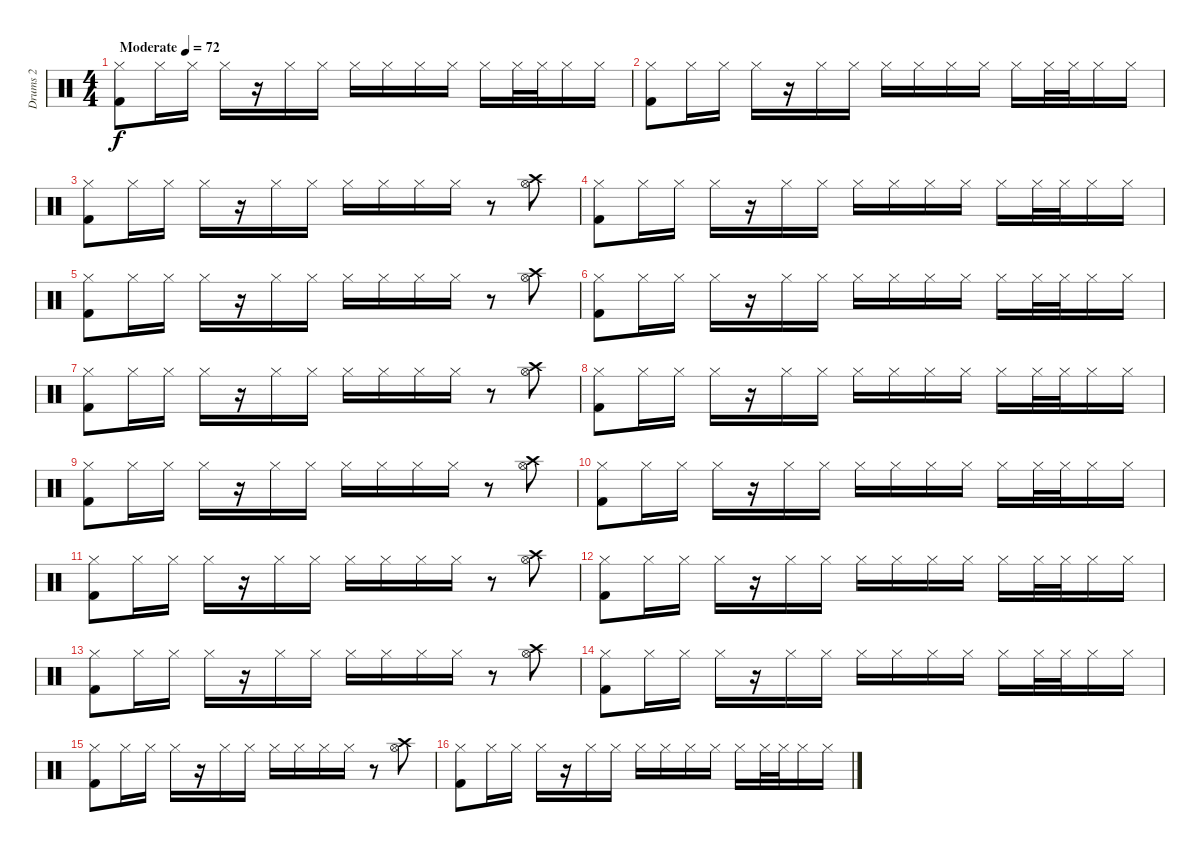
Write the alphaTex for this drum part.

\track ("Drums 2" "Drums 2") {instrument percussion}
\staff {score}
\articulation defaults
\ts (4 4)
\tempo (72 "Moderate")
\clef neutral
\ks c
("Hi-Hat (closed)" "Kick (hit) 2").8{dy f volume 10 balance 12} "Hi-Hat (closed)".16 "Hi-Hat (closed)".16 "Hi-Hat (closed)".16 r.16 "Hi-Hat (closed)".16 "Hi-Hat (closed)".16 "Hi-Hat (closed)".16 "Hi-Hat (closed)".16 "Hi-Hat (closed)".16 "Hi-Hat (closed)".16 "Hi-Hat (closed)".16 "Hi-Hat (closed)".32 "Hi-Hat (closed)".32 "Hi-Hat (closed)".16 "Hi-Hat (closed)".16 |
("Hi-Hat (closed)" "Kick (hit) 2").8 "Hi-Hat (closed)".16 "Hi-Hat (closed)".16 "Hi-Hat (closed)".16 r.16 "Hi-Hat (closed)".16 "Hi-Hat (closed)".16 "Hi-Hat (closed)".16 "Hi-Hat (closed)".16 "Hi-Hat (closed)".16 "Hi-Hat (closed)".16 "Hi-Hat (closed)".16 "Hi-Hat (closed)".32 "Hi-Hat (closed)".32 "Hi-Hat (closed)".16 "Hi-Hat (closed)".16 |
("Hi-Hat (closed)" "Kick (hit) 2").8 "Hi-Hat (closed)".16 "Hi-Hat (closed)".16 "Hi-Hat (closed)".16 r.16 "Hi-Hat (closed)".16 "Hi-Hat (closed)".16 "Hi-Hat (closed)".16 "Hi-Hat (closed)".16 "Hi-Hat (closed)".16 "Hi-Hat (closed)".16 r.8 ("Hi-Hat (open)" "Crash high (hit)").8 |
("Hi-Hat (closed)" "Kick (hit) 2").8 "Hi-Hat (closed)".16 "Hi-Hat (closed)".16 "Hi-Hat (closed)".16 r.16 "Hi-Hat (closed)".16 "Hi-Hat (closed)".16 "Hi-Hat (closed)".16 "Hi-Hat (closed)".16 "Hi-Hat (closed)".16 "Hi-Hat (closed)".16 "Hi-Hat (closed)".16 "Hi-Hat (closed)".32 "Hi-Hat (closed)".32 "Hi-Hat (closed)".16 "Hi-Hat (closed)".16 |
("Hi-Hat (closed)" "Kick (hit) 2").8 "Hi-Hat (closed)".16 "Hi-Hat (closed)".16 "Hi-Hat (closed)".16 r.16 "Hi-Hat (closed)".16 "Hi-Hat (closed)".16 "Hi-Hat (closed)".16 "Hi-Hat (closed)".16 "Hi-Hat (closed)".16 "Hi-Hat (closed)".16 r.8 ("Hi-Hat (open)" "Crash high (hit)").8 |
("Hi-Hat (closed)" "Kick (hit) 2").8 "Hi-Hat (closed)".16 "Hi-Hat (closed)".16 "Hi-Hat (closed)".16 r.16 "Hi-Hat (closed)".16 "Hi-Hat (closed)".16 "Hi-Hat (closed)".16 "Hi-Hat (closed)".16 "Hi-Hat (closed)".16 "Hi-Hat (closed)".16 "Hi-Hat (closed)".16 "Hi-Hat (closed)".32 "Hi-Hat (closed)".32 "Hi-Hat (closed)".16 "Hi-Hat (closed)".16 |
("Hi-Hat (closed)" "Kick (hit) 2").8 "Hi-Hat (closed)".16 "Hi-Hat (closed)".16 "Hi-Hat (closed)".16 r.16 "Hi-Hat (closed)".16 "Hi-Hat (closed)".16 "Hi-Hat (closed)".16 "Hi-Hat (closed)".16 "Hi-Hat (closed)".16 "Hi-Hat (closed)".16 r.8 ("Hi-Hat (open)" "Crash high (hit)").8 |
("Hi-Hat (closed)" "Kick (hit) 2").8 "Hi-Hat (closed)".16 "Hi-Hat (closed)".16 "Hi-Hat (closed)".16 r.16 "Hi-Hat (closed)".16 "Hi-Hat (closed)".16 "Hi-Hat (closed)".16 "Hi-Hat (closed)".16 "Hi-Hat (closed)".16 "Hi-Hat (closed)".16 "Hi-Hat (closed)".16 "Hi-Hat (closed)".32 "Hi-Hat (closed)".32 "Hi-Hat (closed)".16 "Hi-Hat (closed)".16 |
("Hi-Hat (closed)" "Kick (hit) 2").8 "Hi-Hat (closed)".16 "Hi-Hat (closed)".16 "Hi-Hat (closed)".16 r.16 "Hi-Hat (closed)".16 "Hi-Hat (closed)".16 "Hi-Hat (closed)".16 "Hi-Hat (closed)".16 "Hi-Hat (closed)".16 "Hi-Hat (closed)".16 r.8 ("Hi-Hat (open)" "Crash high (hit)").8 |
("Hi-Hat (closed)" "Kick (hit) 2").8 "Hi-Hat (closed)".16 "Hi-Hat (closed)".16 "Hi-Hat (closed)".16 r.16 "Hi-Hat (closed)".16 "Hi-Hat (closed)".16 "Hi-Hat (closed)".16 "Hi-Hat (closed)".16 "Hi-Hat (closed)".16 "Hi-Hat (closed)".16 "Hi-Hat (closed)".16 "Hi-Hat (closed)".32 "Hi-Hat (closed)".32 "Hi-Hat (closed)".16 "Hi-Hat (closed)".16 |
("Hi-Hat (closed)" "Kick (hit) 2").8 "Hi-Hat (closed)".16 "Hi-Hat (closed)".16 "Hi-Hat (closed)".16 r.16 "Hi-Hat (closed)".16 "Hi-Hat (closed)".16 "Hi-Hat (closed)".16 "Hi-Hat (closed)".16 "Hi-Hat (closed)".16 "Hi-Hat (closed)".16 r.8 ("Hi-Hat (open)" "Crash high (hit)").8 |
("Hi-Hat (closed)" "Kick (hit) 2").8 "Hi-Hat (closed)".16 "Hi-Hat (closed)".16 "Hi-Hat (closed)".16 r.16 "Hi-Hat (closed)".16 "Hi-Hat (closed)".16 "Hi-Hat (closed)".16 "Hi-Hat (closed)".16 "Hi-Hat (closed)".16 "Hi-Hat (closed)".16 "Hi-Hat (closed)".16 "Hi-Hat (closed)".32 "Hi-Hat (closed)".32 "Hi-Hat (closed)".16 "Hi-Hat (closed)".16 |
("Hi-Hat (closed)" "Kick (hit) 2").8 "Hi-Hat (closed)".16 "Hi-Hat (closed)".16 "Hi-Hat (closed)".16 r.16 "Hi-Hat (closed)".16 "Hi-Hat (closed)".16 "Hi-Hat (closed)".16 "Hi-Hat (closed)".16 "Hi-Hat (closed)".16 "Hi-Hat (closed)".16 r.8 ("Hi-Hat (open)" "Crash high (hit)").8 |
("Hi-Hat (closed)" "Kick (hit) 2").8 "Hi-Hat (closed)".16 "Hi-Hat (closed)".16 "Hi-Hat (closed)".16 r.16 "Hi-Hat (closed)".16 "Hi-Hat (closed)".16 "Hi-Hat (closed)".16 "Hi-Hat (closed)".16 "Hi-Hat (closed)".16 "Hi-Hat (closed)".16 "Hi-Hat (closed)".16 "Hi-Hat (closed)".32 "Hi-Hat (closed)".32 "Hi-Hat (closed)".16 "Hi-Hat (closed)".16 |
("Hi-Hat (closed)" "Kick (hit) 2").8 "Hi-Hat (closed)".16 "Hi-Hat (closed)".16 "Hi-Hat (closed)".16 r.16 "Hi-Hat (closed)".16 "Hi-Hat (closed)".16 "Hi-Hat (closed)".16 "Hi-Hat (closed)".16 "Hi-Hat (closed)".16 "Hi-Hat (closed)".16 r.8 ("Hi-Hat (open)" "Crash high (hit)").8 |
("Hi-Hat (closed)" "Kick (hit) 2").8 "Hi-Hat (closed)".16 "Hi-Hat (closed)".16 "Hi-Hat (closed)".16 r.16 "Hi-Hat (closed)".16 "Hi-Hat (closed)".16 "Hi-Hat (closed)".16 "Hi-Hat (closed)".16 "Hi-Hat (closed)".16 "Hi-Hat (closed)".16 "Hi-Hat (closed)".16 "Hi-Hat (closed)".32 "Hi-Hat (closed)".32 "Hi-Hat (closed)".16 "Hi-Hat (closed)".16
